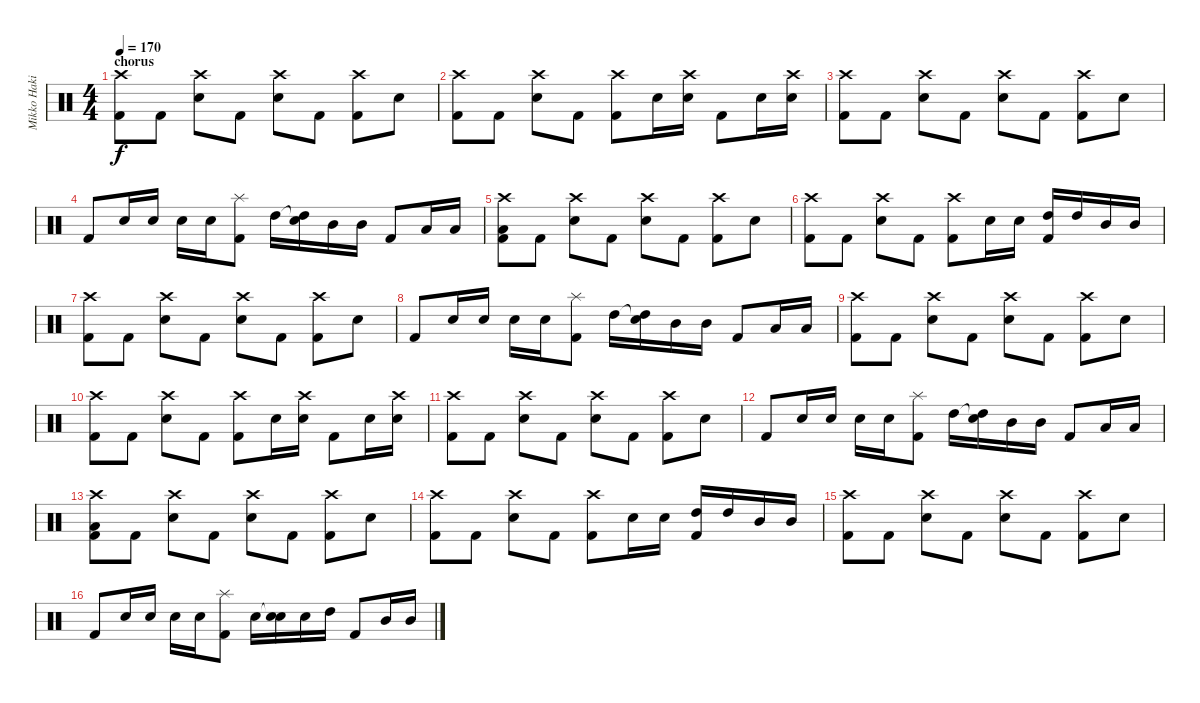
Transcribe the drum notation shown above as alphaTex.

\track ("Mikko Hakila - drums" "Mikko Haki") {instrument percussion}
\staff {score}
\articulation defaults
\ts (4 4)
\section ("" "chorus")
\tempo 170
\clef neutral
\ks c
("Crash high (hit)" "Kick (hit) 2").8{dy f} "Kick (hit) 2".8 ("Crash high (hit)" "Snare (hit) 2").8 "Kick (hit) 2".8 ("Crash high (hit)" "Snare (hit) 2").8 "Kick (hit) 2".8 ("Crash high (hit)" "Kick (hit) 2").8 "Snare (hit) 2".8 |
("Crash high (hit)" "Kick (hit) 2").8 "Kick (hit) 2".8 ("Crash high (hit)" "Snare (hit) 2").8 "Kick (hit) 2".8 ("Crash high (hit)" "Kick (hit) 2").8 "Snare (hit) 2".16 ("Crash high (hit)" "Snare (hit) 2").16 "Kick (hit) 2".8 "Snare (hit) 2".16 ("Crash high (hit)" "Snare (hit) 2").16 |
("Crash high (hit)" "Kick (hit) 2").8 "Kick (hit) 2".8 ("Crash high (hit)" "Snare (hit) 2").8 "Kick (hit) 2".8 ("Crash high (hit)" "Snare (hit) 2").8 "Kick (hit) 2".8 ("Crash high (hit)" "Kick (hit) 2").8 "Snare (hit) 2".8 |
"Kick (hit) 2".8 "Snare (hit) 2".16 "Snare (hit) 2".16 "Snare (hit) 2".16 "Snare (hit) 2".16 ("Splash (hit)" "Kick (hit) 2").8 "High Tom (hit)".16 ("Snare (hit)"{t} "High Tom (hit)").16 "Mid Tom (hit)".16 "Mid Tom (hit)".16 "Kick (hit) 2".8 "Low Tom (hit)".16 "Low Tom (hit)".16 |
("Crash high (hit)" "Low Tom (hit)" "Kick (hit) 2").8 "Kick (hit) 2".8 ("Crash high (hit)" "Snare (hit) 2").8 "Kick (hit) 2".8 ("Crash high (hit)" "Snare (hit) 2").8 "Kick (hit) 2".8 ("Crash high (hit)" "Kick (hit) 2").8 "Snare (hit) 2".8 |
("Crash high (hit)" "Kick (hit) 2").8 "Kick (hit) 2".8 ("Crash high (hit)" "Snare (hit) 2").8 "Kick (hit) 2".8 ("Crash high (hit)" "Kick (hit) 2").8 "Snare (hit) 2".16 "Snare (hit) 2".16 ("High Tom (hit)" "Kick (hit) 2").16 "High Tom (hit)".16 "Mid Tom (hit)".16 "Mid Tom (hit)".16 |
("Crash high (hit)" "Kick (hit) 2").8 "Kick (hit) 2".8 ("Crash high (hit)" "Snare (hit) 2").8 "Kick (hit) 2".8 ("Crash high (hit)" "Snare (hit) 2").8 "Kick (hit) 2".8 ("Crash high (hit)" "Kick (hit) 2").8 "Snare (hit) 2".8 |
"Kick (hit) 2".8 "Snare (hit) 2".16 "Snare (hit) 2".16 "Snare (hit) 2".16 "Snare (hit) 2".16 ("Splash (hit)" "Kick (hit) 2").8 "High Tom (hit)".16 ("Snare (hit)"{t} "High Tom (hit)").16 "Mid Tom (hit)".16 "Mid Tom (hit)".16 "Kick (hit) 2".8 "Low Tom (hit)".16 "Low Tom (hit)".16 |
("Crash high (hit)" "Kick (hit) 2").8 "Kick (hit) 2".8 ("Crash high (hit)" "Snare (hit) 2").8 "Kick (hit) 2".8 ("Crash high (hit)" "Snare (hit) 2").8 "Kick (hit) 2".8 ("Crash high (hit)" "Kick (hit) 2").8 "Snare (hit) 2".8 |
("Crash high (hit)" "Kick (hit) 2").8 "Kick (hit) 2".8 ("Crash high (hit)" "Snare (hit) 2").8 "Kick (hit) 2".8 ("Crash high (hit)" "Kick (hit) 2").8 "Snare (hit) 2".16 ("Crash high (hit)" "Snare (hit) 2").16 "Kick (hit) 2".8 "Snare (hit) 2".16 ("Crash high (hit)" "Snare (hit) 2").16 |
("Crash high (hit)" "Kick (hit) 2").8 "Kick (hit) 2".8 ("Crash high (hit)" "Snare (hit) 2").8 "Kick (hit) 2".8 ("Crash high (hit)" "Snare (hit) 2").8 "Kick (hit) 2".8 ("Crash high (hit)" "Kick (hit) 2").8 "Snare (hit) 2".8 |
"Kick (hit) 2".8 "Snare (hit) 2".16 "Snare (hit) 2".16 "Snare (hit) 2".16 "Snare (hit) 2".16 ("Splash (hit)" "Kick (hit) 2").8 "High Tom (hit)".16 ("Snare (hit)"{t} "High Tom (hit)").16 "Mid Tom (hit)".16 "Mid Tom (hit)".16 "Kick (hit) 2".8 "Low Tom (hit)".16 "Low Tom (hit)".16 |
("Crash high (hit)" "Low Tom (hit)" "Kick (hit) 2").8 "Kick (hit) 2".8 ("Crash high (hit)" "Snare (hit) 2").8 "Kick (hit) 2".8 ("Crash high (hit)" "Snare (hit) 2").8 "Kick (hit) 2".8 ("Crash high (hit)" "Kick (hit) 2").8 "Snare (hit) 2".8 |
("Crash high (hit)" "Kick (hit) 2").8 "Kick (hit) 2".8 ("Crash high (hit)" "Snare (hit) 2").8 "Kick (hit) 2".8 ("Crash high (hit)" "Kick (hit) 2").8 "Snare (hit) 2".16 "Snare (hit) 2".16 ("High Tom (hit)" "Kick (hit) 2").16 "High Tom (hit)".16 "Mid Tom (hit)".16 "Mid Tom (hit)".16 |
("Crash high (hit)" "Kick (hit) 2").8 "Kick (hit) 2".8 ("Crash high (hit)" "Snare (hit) 2").8 "Kick (hit) 2".8 ("Crash high (hit)" "Snare (hit) 2").8 "Kick (hit) 2".8 ("Crash high (hit)" "Kick (hit) 2").8 "Snare (hit) 2".8 |
"Kick (hit) 2".8 "Snare (hit) 2".16 "Snare (hit) 2".16 "Snare (hit) 2".16 "Snare (hit) 2".16 ("Splash (hit)" "Kick (hit) 2").8 "Snare (hit) 2".16 ("Snare (hit)"{t} "Snare (hit) 2").16 "Snare (hit) 2".16 "High Tom (hit)".16 "Kick (hit) 2".8 "Mid Tom (hit)".16 "Mid Tom (hit)".16
